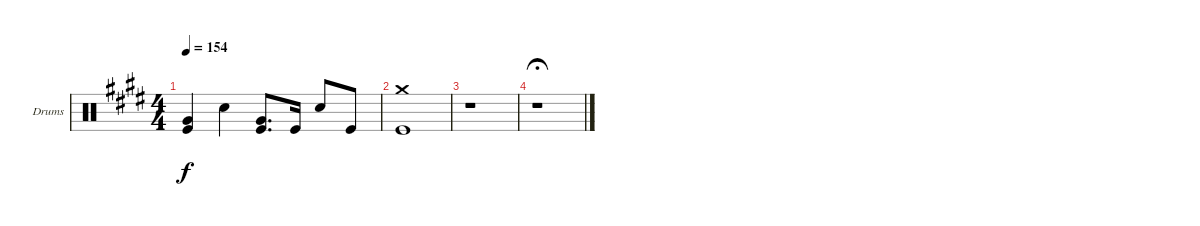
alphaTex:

\defaultSystemsLayout 4
\bracketExtendMode groupsimilarinstruments
\firstSystemTrackNameOrientation horizontal
\otherSystemsTrackNameOrientation horizontal
\track ("Jon Larsen" "Drums") {instrument percussion}
\staff {score}
\articulation defaults
\ts (4 4)
\tempo 154
\clef neutral
\scale
0.333333
\ks e
("Very Low Tom (hit)" "Kick (hit)").4{dy f} "Snare (hit) 2".4 ("Very Low Tom (hit)" "Kick (hit)").8{d} "Kick (hit)".16 "Snare (hit) 2".8 "Kick (hit)".8 |
\scale
0.333333 ("Crash medium (hit)" "Kick (hit)").1 |
r.1 |
r.1{fermata (medium 0.5)}
